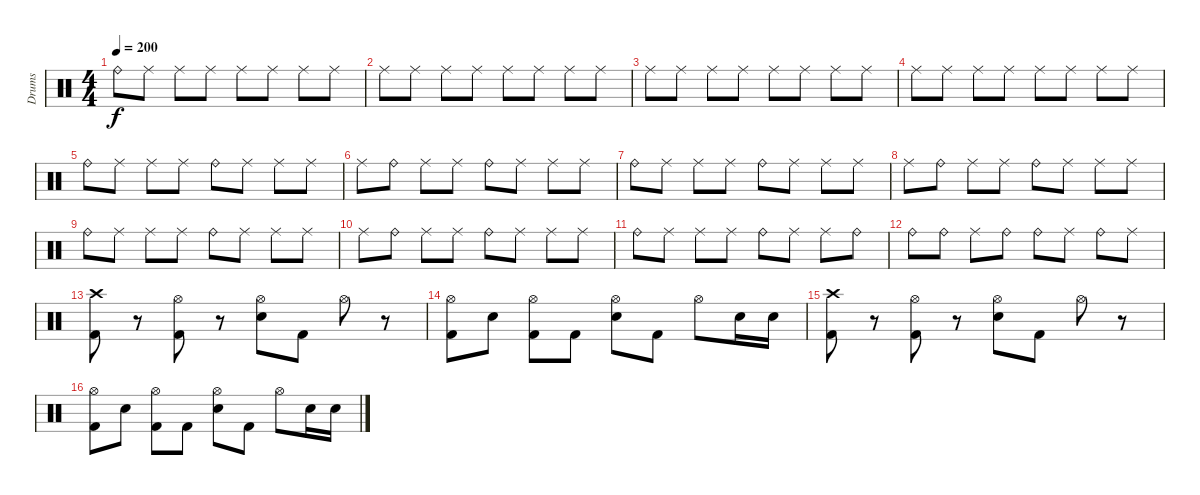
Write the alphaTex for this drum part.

\track ("Drums" "Drums") {instrument percussion}
\staff {score}
\articulation defaults
\ts (4 4)
\tempo 200
\clef neutral
\ks c "Ride (bell)".8{dy f} "Ride (middle)".8 "Ride (middle)".8 "Ride (middle)".8 "Ride (middle)".8 "Ride (middle)".8 "Ride (middle)".8 "Ride (middle)".8
|
"Ride (middle)".8 "Ride (middle)".8 "Ride (middle)".8 "Ride (middle)".8 "Ride (middle)".8 "Ride (middle)".8 "Ride (middle)".8 "Ride (middle)".8 |
"Ride (middle)".8 "Ride (middle)".8 "Ride (middle)".8 "Ride (middle)".8 "Ride (middle)".8 "Ride (middle)".8 "Ride (middle)".8 "Ride (middle)".8 |
"Ride (middle)".8 "Ride (middle)".8 "Ride (middle)".8 "Ride (middle)".8 "Ride (middle)".8 "Ride (middle)".8 "Ride (middle)".8 "Ride (middle)".8 |
"Ride (bell)".8 "Ride (middle)".8 "Ride (middle)".8 "Ride (middle)".8 "Ride (bell)".8 "Ride (middle)".8 "Ride (middle)".8 "Ride (middle)".8 |
"Ride (middle)".8 "Ride (bell)".8 "Ride (middle)".8 "Ride (middle)".8 "Ride (bell)".8 "Ride (middle)".8 "Ride (middle)".8 "Ride (middle)".8 |
"Ride (bell)".8 "Ride (middle)".8 "Ride (middle)".8 "Ride (middle)".8 "Ride (bell)".8 "Ride (middle)".8 "Ride (middle)".8 "Ride (middle)".8 |
"Ride (middle)".8 "Ride (bell)".8 "Ride (middle)".8 "Ride (middle)".8 "Ride (bell)".8 "Ride (middle)".8 "Ride (middle)".8 "Ride (middle)".8 |
"Ride (bell)".8 "Ride (middle)".8 "Ride (middle)".8 "Ride (middle)".8 "Ride (bell)".8 "Ride (middle)".8 "Ride (middle)".8 "Ride (middle)".8 |
"Ride (middle)".8 "Ride (bell)".8 "Ride (middle)".8 "Ride (middle)".8 "Ride (bell)".8 "Ride (middle)".8 "Ride (middle)".8 "Ride (middle)".8 |
"Ride (bell)".8 "Ride (middle)".8 "Ride (middle)".8 "Ride (middle)".8 "Ride (bell)".8 "Ride (middle)".8 "Ride (middle)".8 "Ride (bell)".8 |
"Ride (bell)".8 "Ride (bell)".8 "Ride (middle)".8 "Ride (bell)".8 "Ride (bell)".8 "Ride (middle)".8 "Ride (bell)".8 "Ride (middle)".8 |
("Crash high (hit)" "Kick (hit) 2").8 r.8 ("Hi-Hat (open)" "Kick (hit) 2").8 r.8 ("Hi-Hat (open)" "Electric Snare (hit)").8 "Kick (hit) 2".8 "Hi-Hat (open)".8 r.8 |
("Hi-Hat (open)" "Kick (hit) 2").8 "Electric Snare (hit)".8 ("Hi-Hat (open)" "Kick (hit) 2").8 "Kick (hit) 2".8 ("Hi-Hat (open)" "Electric Snare (hit)").8 "Kick (hit) 2".8 "Hi-Hat (open)".8 "Electric Snare (hit)".16 "Electric Snare (hit)".16 |
("Crash high (hit)" "Kick (hit) 2").8 r.8 ("Hi-Hat (open)" "Kick (hit) 2").8 r.8 ("Hi-Hat (open)" "Electric Snare (hit)").8 "Kick (hit) 2".8 "Hi-Hat (open)".8 r.8 |
("Hi-Hat (open)" "Kick (hit) 2").8 "Electric Snare (hit)".8 ("Hi-Hat (open)" "Kick (hit) 2").8 "Kick (hit) 2".8 ("Hi-Hat (open)" "Electric Snare (hit)").8 "Kick (hit) 2".8 "Hi-Hat (open)".8 "Electric Snare (hit)".16 "Electric Snare (hit)".16
